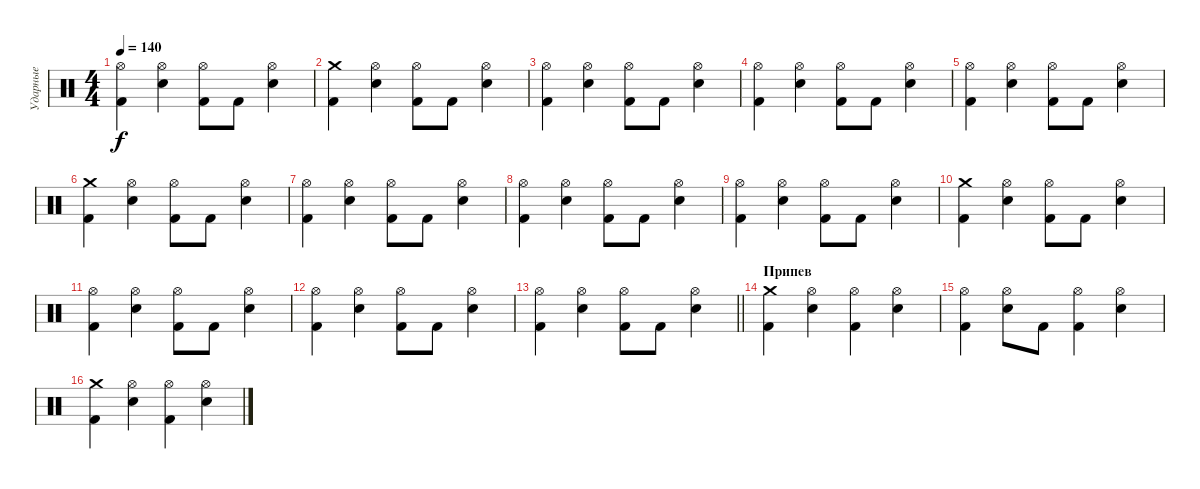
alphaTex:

\track ("Ударные" "Ударные") {instrument percussion}
\staff {score}
\articulation defaults
\ts (4 4)
\tempo 140
\clef neutral
\ks c
("Hi-Hat (open)" "Kick (hit) 2").4{dy f} ("Hi-Hat (open)" "Snare (hit) 2").4 ("Hi-Hat (open)" "Kick (hit) 2").8 "Kick (hit) 2".8 ("Snare (hit) 2" "Hi-Hat (open)").4 |
("Crash medium (hit)" "Kick (hit) 2").4 ("Hi-Hat (open)" "Snare (hit) 2").4 ("Hi-Hat (open)" "Kick (hit) 2").8 "Kick (hit) 2".8 ("Snare (hit) 2" "Hi-Hat (open)").4 |
("Hi-Hat (open)" "Kick (hit) 2").4 ("Hi-Hat (open)" "Snare (hit) 2").4 ("Hi-Hat (open)" "Kick (hit) 2").8 "Kick (hit) 2".8 ("Snare (hit) 2" "Hi-Hat (open)").4 |
("Hi-Hat (open)" "Kick (hit) 2").4 ("Hi-Hat (open)" "Snare (hit) 2").4 ("Hi-Hat (open)" "Kick (hit) 2").8 "Kick (hit) 2".8 ("Snare (hit) 2" "Hi-Hat (open)").4 |
("Hi-Hat (open)" "Kick (hit) 2").4 ("Hi-Hat (open)" "Snare (hit) 2").4 ("Hi-Hat (open)" "Kick (hit) 2").8 "Kick (hit) 2".8 ("Snare (hit) 2" "Hi-Hat (open)").4 |
("Crash medium (hit)" "Kick (hit) 2").4 ("Hi-Hat (open)" "Snare (hit) 2").4 ("Hi-Hat (open)" "Kick (hit) 2").8 "Kick (hit) 2".8 ("Snare (hit) 2" "Hi-Hat (open)").4 |
("Hi-Hat (open)" "Kick (hit) 2").4 ("Hi-Hat (open)" "Snare (hit) 2").4 ("Hi-Hat (open)" "Kick (hit) 2").8 "Kick (hit) 2".8 ("Snare (hit) 2" "Hi-Hat (open)").4 |
("Hi-Hat (open)" "Kick (hit) 2").4 ("Hi-Hat (open)" "Snare (hit) 2").4 ("Hi-Hat (open)" "Kick (hit) 2").8 "Kick (hit) 2".8 ("Snare (hit) 2" "Hi-Hat (open)").4 |
("Hi-Hat (open)" "Kick (hit) 2").4 ("Hi-Hat (open)" "Snare (hit) 2").4 ("Hi-Hat (open)" "Kick (hit) 2").8 "Kick (hit) 2".8 ("Snare (hit) 2" "Hi-Hat (open)").4 |
("Crash medium (hit)" "Kick (hit) 2").4 ("Hi-Hat (open)" "Snare (hit) 2").4 ("Hi-Hat (open)" "Kick (hit) 2").8 "Kick (hit) 2".8 ("Snare (hit) 2" "Hi-Hat (open)").4 |
("Hi-Hat (open)" "Kick (hit) 2").4 ("Hi-Hat (open)" "Snare (hit) 2").4 ("Hi-Hat (open)" "Kick (hit) 2").8 "Kick (hit) 2".8 ("Snare (hit) 2" "Hi-Hat (open)").4 |
("Hi-Hat (open)" "Kick (hit) 2").4 ("Hi-Hat (open)" "Snare (hit) 2").4 ("Hi-Hat (open)" "Kick (hit) 2").8 "Kick (hit) 2".8 ("Snare (hit) 2" "Hi-Hat (open)").4 |
\barLineRight lightlight
("Hi-Hat (open)" "Kick (hit) 2").4 ("Hi-Hat (open)" "Snare (hit) 2").4 ("Hi-Hat (open)" "Kick (hit) 2").8 "Kick (hit) 2".8 ("Snare (hit) 2" "Hi-Hat (open)").4 |
\section ("" "Припев ")
("Crash medium (hit)" "Kick (hit) 2").4 ("Hi-Hat (open)" "Snare (hit) 2").4 ("Hi-Hat (open)" "Kick (hit) 2").4 ("Snare (hit) 2" "Hi-Hat (open)").4 |
("Hi-Hat (open)" "Kick (hit) 2").4 ("Hi-Hat (open)" "Snare (hit) 2").8 "Kick (hit) 2".8 ("Hi-Hat (open)" "Kick (hit) 2").4 ("Snare (hit) 2" "Hi-Hat (open)").4 |
("Crash medium (hit)" "Kick (hit) 2").4 ("Hi-Hat (open)" "Snare (hit) 2").4 ("Hi-Hat (open)" "Kick (hit) 2").4 ("Snare (hit) 2" "Hi-Hat (open)").4
